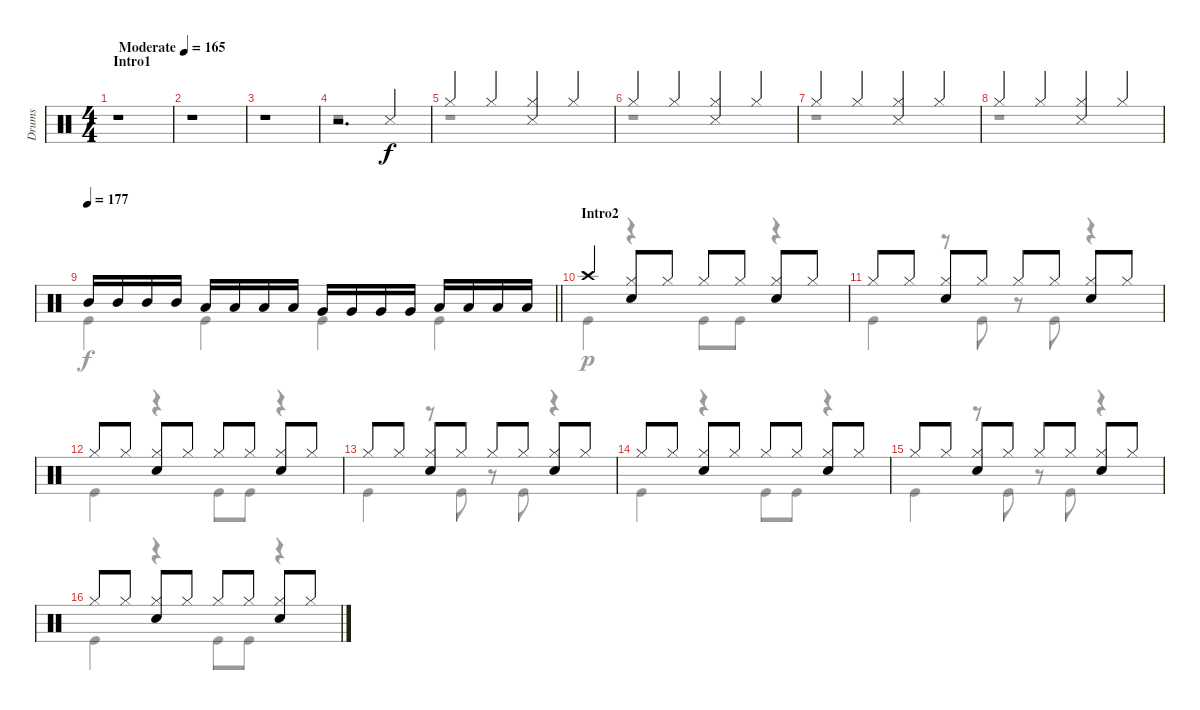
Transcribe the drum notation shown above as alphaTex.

\track ("Drums" "Drums") {instrument percussion}
\staff {score}
\articulation defaults
\voice
\ts (4 4)
\section ("" "Intro1")
\tempo (165 "Moderate")
\clef neutral
\ks c
r.1{dy f} |
r.1 |
r.1 |
r.2{d} "Snare (side stick) 3".4 |
"Hi-Hat (closed)".4 "Hi-Hat (closed)".4 ("Hi-Hat (closed)" "Snare (side stick) 3").4 "Hi-Hat (closed)".4 |
"Hi-Hat (closed)".4 "Hi-Hat (closed)".4 ("Hi-Hat (closed)" "Snare (side stick) 3").4 "Hi-Hat (closed)".4 |
"Hi-Hat (closed)".4 "Hi-Hat (closed)".4 ("Hi-Hat (closed)" "Snare (side stick) 3").4 "Hi-Hat (closed)".4 |
"Hi-Hat (closed)".4 "Hi-Hat (closed)".4 ("Hi-Hat (closed)" "Snare (side stick) 3").4 "Hi-Hat (closed)".4 |
\tempo 177
\barLineRight lightlight "Mid Tom (hit)".16 "Mid Tom (hit)".16 "Mid Tom (hit)".16 "Mid Tom (hit)".16 "Low Tom (hit)".16 "Low Tom (hit)".16 "Low Tom (hit)".16 "Low Tom (hit)".16 "Very Low Tom (hit)".16 "Very Low Tom (hit)".16 "Very Low Tom (hit)".16 "Very Low Tom (hit)".16 "Low Floor Tom (hit)".16 "Low Floor Tom (hit)".16 "Low Floor Tom (hit)".16 "Low Floor Tom (hit)".16
|
\section ("" "Intro2")
"Crash high (hit)".4 ("Hi-Hat (closed)" "Snare (hit) 2").8 "Hi-Hat (closed)".8 "Hi-Hat (closed)".8 "Hi-Hat (closed)".8 ("Hi-Hat (closed)" "Snare (hit) 2").8 "Hi-Hat (closed)".8 |
"Hi-Hat (closed)".8 "Hi-Hat (closed)".8 ("Hi-Hat (closed)" "Snare (hit) 2").8 "Hi-Hat (closed)".8 "Hi-Hat (closed)".8 "Hi-Hat (closed)".8 ("Hi-Hat (closed)" "Snare (hit) 2").8 "Hi-Hat (closed)".8 |
"Hi-Hat (closed)".8 "Hi-Hat (closed)".8 ("Hi-Hat (closed)" "Snare (hit) 2").8 "Hi-Hat (closed)".8 "Hi-Hat (closed)".8 "Hi-Hat (closed)".8 ("Hi-Hat (closed)" "Snare (hit) 2").8 "Hi-Hat (closed)".8 |
"Hi-Hat (closed)".8 "Hi-Hat (closed)".8 ("Hi-Hat (closed)" "Snare (hit) 2").8 "Hi-Hat (closed)".8 "Hi-Hat (closed)".8 "Hi-Hat (closed)".8 ("Hi-Hat (closed)" "Snare (hit) 2").8 "Hi-Hat (closed)".8 |
"Hi-Hat (closed)".8 "Hi-Hat (closed)".8 ("Hi-Hat (closed)" "Snare (hit) 2").8 "Hi-Hat (closed)".8 "Hi-Hat (closed)".8 "Hi-Hat (closed)".8 ("Hi-Hat (closed)" "Snare (hit) 2").8 "Hi-Hat (closed)".8 |
"Hi-Hat (closed)".8 "Hi-Hat (closed)".8 ("Hi-Hat (closed)" "Snare (hit) 2").8 "Hi-Hat (closed)".8 "Hi-Hat (closed)".8 "Hi-Hat (closed)".8 ("Hi-Hat (closed)" "Snare (hit) 2").8 "Hi-Hat (closed)".8 |
"Hi-Hat (closed)".8 "Hi-Hat (closed)".8 ("Hi-Hat (closed)" "Snare (hit) 2").8 "Hi-Hat (closed)".8 "Hi-Hat (closed)".8 "Hi-Hat (closed)".8 ("Hi-Hat (closed)" "Snare (hit) 2").8 "Hi-Hat (closed)".8
\voice
\clef neutral
\ottava regular
\simile none
\ks c
r.1{dy f} |
r.1 |
r.1 |
r.1 |
r.1 |
r.1 |
r.1 |
r.1 |
\barLineRight lightlight "Kick (hit)".4 "Kick (hit)".4 "Kick (hit)".4 "Kick (hit)".4
|
"Kick (hit)".4{dy p} r.4 "Kick (hit)".8 "Kick (hit)".8 r.4 |
"Kick (hit)".4 r.8 "Kick (hit)".8 r.8 "Kick (hit)".8 r.4 |
"Kick (hit)".4 r.4 "Kick (hit)".8 "Kick (hit)".8 r.4 |
"Kick (hit)".4 r.8 "Kick (hit)".8 r.8 "Kick (hit)".8 r.4 |
"Kick (hit)".4 r.4 "Kick (hit)".8 "Kick (hit)".8 r.4 |
"Kick (hit)".4 r.8 "Kick (hit)".8 r.8 "Kick (hit)".8 r.4 |
"Kick (hit)".4 r.4 "Kick (hit)".8 "Kick (hit)".8 r.4
